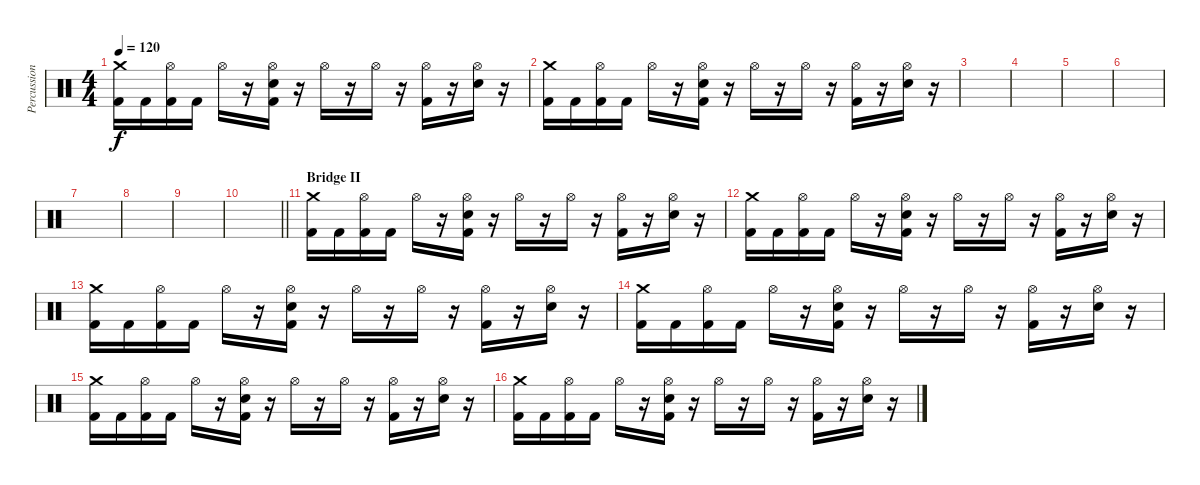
\track ("Percussion" "Percussion") {instrument percussion}
\staff {score}
\articulation defaults
\ts (4 4)
\tempo 120
\clef neutral
\ks c
("Crash medium (hit)" "Kick (hit) 2").16{dy f} "Kick (hit) 2".16 ("Hi-Hat (open)" "Kick (hit) 2").16 "Kick (hit) 2".16 "Hi-Hat (open)".16 r.16 ("Hi-Hat (open)" "Electric Snare (hit)" "Kick (hit) 2").16 r.16 "Hi-Hat (open)".16 r.16 "Hi-Hat (open)".16 r.16 ("Hi-Hat (open)" "Kick (hit) 2").16 r.16 ("Hi-Hat (open)" "Electric Snare (hit)").16 r.16 |
("Crash medium (hit)" "Kick (hit) 2").16 "Kick (hit) 2".16 ("Hi-Hat (open)" "Kick (hit) 2").16 "Kick (hit) 2".16 "Hi-Hat (open)".16 r.16 ("Hi-Hat (open)" "Electric Snare (hit)" "Kick (hit) 2").16 r.16 "Hi-Hat (open)".16 r.16 "Hi-Hat (open)".16 r.16 ("Hi-Hat (open)" "Kick (hit) 2").16 r.16 ("Hi-Hat (open)" "Electric Snare (hit)").16 r.16 |
|
|
|
|
|
|
|
\barLineRight lightlight
|
\section ("" "Bridge II")
("Crash medium (hit)" "Kick (hit) 2").16 "Kick (hit) 2".16 ("Hi-Hat (open)" "Kick (hit) 2").16 "Kick (hit) 2".16 "Hi-Hat (open)".16 r.16 ("Hi-Hat (open)" "Electric Snare (hit)" "Kick (hit) 2").16 r.16 "Hi-Hat (open)".16 r.16 "Hi-Hat (open)".16 r.16 ("Hi-Hat (open)" "Kick (hit) 2").16 r.16 ("Hi-Hat (open)" "Electric Snare (hit)").16 r.16 |
("Crash medium (hit)" "Kick (hit) 2").16 "Kick (hit) 2".16 ("Hi-Hat (open)" "Kick (hit) 2").16 "Kick (hit) 2".16 "Hi-Hat (open)".16 r.16 ("Hi-Hat (open)" "Electric Snare (hit)" "Kick (hit) 2").16 r.16 "Hi-Hat (open)".16 r.16 "Hi-Hat (open)".16 r.16 ("Hi-Hat (open)" "Kick (hit) 2").16 r.16 ("Hi-Hat (open)" "Electric Snare (hit)").16 r.16 |
("Crash medium (hit)" "Kick (hit) 2").16 "Kick (hit) 2".16 ("Hi-Hat (open)" "Kick (hit) 2").16 "Kick (hit) 2".16 "Hi-Hat (open)".16 r.16 ("Hi-Hat (open)" "Electric Snare (hit)" "Kick (hit) 2").16 r.16 "Hi-Hat (open)".16 r.16 "Hi-Hat (open)".16 r.16 ("Hi-Hat (open)" "Kick (hit) 2").16 r.16 ("Hi-Hat (open)" "Electric Snare (hit)").16 r.16 |
("Crash medium (hit)" "Kick (hit) 2").16 "Kick (hit) 2".16 ("Hi-Hat (open)" "Kick (hit) 2").16 "Kick (hit) 2".16 "Hi-Hat (open)".16 r.16 ("Hi-Hat (open)" "Electric Snare (hit)" "Kick (hit) 2").16 r.16 "Hi-Hat (open)".16 r.16 "Hi-Hat (open)".16 r.16 ("Hi-Hat (open)" "Kick (hit) 2").16 r.16 ("Hi-Hat (open)" "Electric Snare (hit)").16 r.16 |
("Crash medium (hit)" "Kick (hit) 2").16 "Kick (hit) 2".16 ("Hi-Hat (open)" "Kick (hit) 2").16 "Kick (hit) 2".16 "Hi-Hat (open)".16 r.16 ("Hi-Hat (open)" "Electric Snare (hit)" "Kick (hit) 2").16 r.16 "Hi-Hat (open)".16 r.16 "Hi-Hat (open)".16 r.16 ("Hi-Hat (open)" "Kick (hit) 2").16 r.16 ("Hi-Hat (open)" "Electric Snare (hit)").16 r.16 |
("Crash medium (hit)" "Kick (hit) 2").16 "Kick (hit) 2".16 ("Hi-Hat (open)" "Kick (hit) 2").16 "Kick (hit) 2".16 "Hi-Hat (open)".16 r.16 ("Hi-Hat (open)" "Electric Snare (hit)" "Kick (hit) 2").16 r.16 "Hi-Hat (open)".16 r.16 "Hi-Hat (open)".16 r.16 ("Hi-Hat (open)" "Kick (hit) 2").16 r.16 ("Hi-Hat (open)" "Electric Snare (hit)").16 r.16
